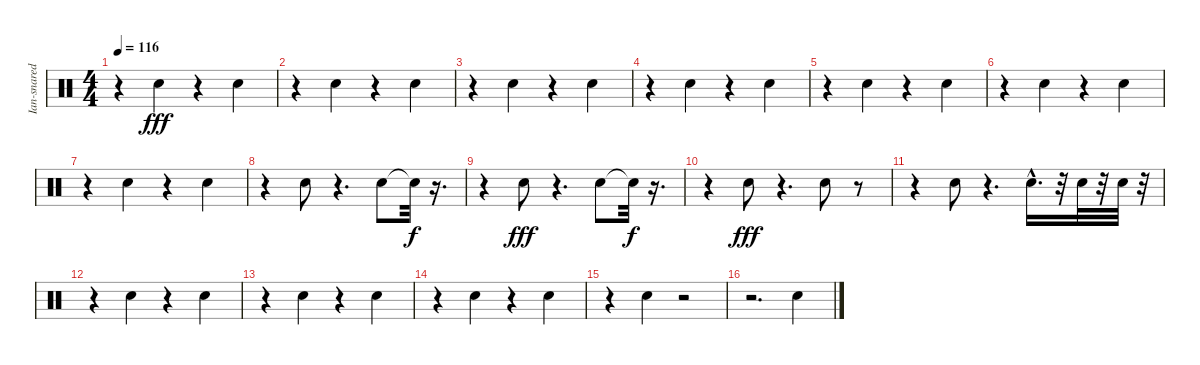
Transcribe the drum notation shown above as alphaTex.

\track ("Ian-snaredrum" "Ian-snared") {instrument percussion}
\staff {score}
\articulation defaults
\ts (4 4)
\tempo 116
\clef neutral
\ks c
r.4{dy fff} "Electric Snare (hit)".4 r.4 "Electric Snare (hit)".4 |
r.4 "Electric Snare (hit)".4 r.4 "Electric Snare (hit)".4 |
r.4 "Electric Snare (hit)".4 r.4 "Electric Snare (hit)".4 |
r.4 "Electric Snare (hit)".4 r.4 "Electric Snare (hit)".4 |
r.4 "Electric Snare (hit)".4 r.4 "Electric Snare (hit)".4 |
r.4 "Electric Snare (hit)".4 r.4 "Electric Snare (hit)".4 |
r.4 "Electric Snare (hit)".4 r.4 "Electric Snare (hit)".4 |
r.4 "Electric Snare (hit)".8 r.4{d} "Electric Snare (hit)".8 "Snare (hit)"{t}.32{dy f} r.16{d} |
r.4 "Electric Snare (hit)".8{dy fff} r.4{d} "Electric Snare (hit)".8 "Snare (hit)"{t}.32{dy f} r.16{d} |
r.4 "Electric Snare (hit)".8{dy fff} r.4{d} "Electric Snare (hit)".8 r.8 |
r.4 "Electric Snare (hit)".8 r.4{d} "Electric Snare (hit)"{hac}.16{d} r.32 "Electric Snare (hit)".32 r.32 "Electric Snare (hit)".32 r.32 |
r.4 "Electric Snare (hit)".4 r.4 "Electric Snare (hit)".4 |
r.4 "Electric Snare (hit)".4 r.4 "Electric Snare (hit)".4 |
r.4 "Electric Snare (hit)".4 r.4 "Electric Snare (hit)".4 |
r.4 "Electric Snare (hit)".4 r.2 |
r.2{d} "Electric Snare (hit)".4
